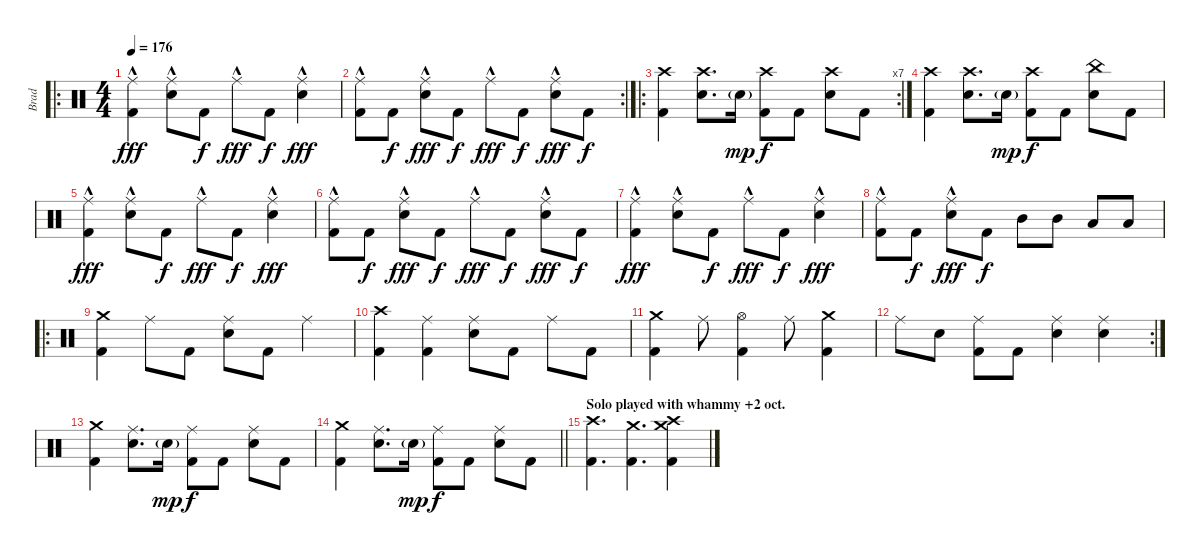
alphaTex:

\track ("Brad" "Brad") {instrument percussion}
\staff {score}
\articulation defaults
\ro
\ts (4 4)
\tempo 176
\clef neutral
\ks c
("Ride (middle)"{hac} "Kick (hit) 2").4{dy fff} ("Ride (middle)"{hac} "Electric Snare (hit)").8 "Kick (hit) 2".8{dy f} "Ride (middle)"{hac}.8{dy fff} "Kick (hit) 2".8{dy f} ("Ride (middle)"{hac} "Electric Snare (hit)").4{dy fff} |
\rc 2
("Ride (middle)"{hac} "Kick (hit) 2").8 "Kick (hit) 2".8{dy f} ("Ride (middle)"{hac} "Electric Snare (hit)").8{dy fff} "Kick (hit) 2".8{dy f} "Ride (middle)"{hac}.8{dy fff} "Kick (hit) 2".8{dy f} ("Ride (middle)"{hac} "Electric Snare (hit)").8{dy fff} "Kick (hit) 2".8{dy f} |
\ro
\rc 7
("Crash high (hit)" "Kick (hit) 2").4 ("Crash high (hit)" "Electric Snare (hit)").8{d} "Electric Snare (hit)"{g}.16{dy mp} ("Crash high (hit)" "Kick (hit) 2").8{dy f} "Kick (hit) 2".8 ("Crash high (hit)" "Electric Snare (hit)").8 "Kick (hit) 2".8 |
("Crash high (hit)" "Kick (hit) 2").4 ("Crash high (hit)" "Electric Snare (hit)").8{d} "Electric Snare (hit)"{g}.16{dy mp} ("Crash high (hit)" "Kick (hit) 2").8{dy f} "Kick (hit) 2".8 ("China (hit)" "Electric Snare (hit)").8 "Kick (hit) 2".8 |
("Ride (middle)"{hac} "Kick (hit) 2").4{dy fff} ("Ride (middle)"{hac} "Electric Snare (hit)").8 "Kick (hit) 2".8{dy f} "Ride (middle)"{hac}.8{dy fff} "Kick (hit) 2".8{dy f} ("Ride (middle)"{hac} "Electric Snare (hit)").4{dy fff} |
("Ride (middle)"{hac} "Kick (hit) 2").8 "Kick (hit) 2".8{dy f} ("Ride (middle)"{hac} "Electric Snare (hit)").8{dy fff} "Kick (hit) 2".8{dy f} "Ride (middle)"{hac}.8{dy fff} "Kick (hit) 2".8{dy f} ("Ride (middle)"{hac} "Electric Snare (hit)").8{dy fff} "Kick (hit) 2".8{dy f} |
("Ride (middle)"{hac} "Kick (hit) 2").4{dy fff} ("Ride (middle)"{hac} "Electric Snare (hit)").8 "Kick (hit) 2".8{dy f} "Ride (middle)"{hac}.8{dy fff} "Kick (hit) 2".8{dy f} ("Ride (middle)"{hac} "Electric Snare (hit)").4{dy fff} |
("Ride (middle)"{hac} "Kick (hit) 2").8 "Kick (hit) 2".8{dy f} ("Ride (middle)"{hac} "Electric Snare (hit)").8{dy fff} "Kick (hit) 2".8{dy f} "Mid Tom (hit)".8 "Mid Tom (hit)".8 "Low Tom (hit)".8 "Low Tom (hit)".8 |
\ro
("Crash medium (hit)" "Kick (hit) 2").4 "Ride (middle)".8 "Kick (hit) 2".8 ("Ride (middle)" "Electric Snare (hit)").8 "Kick (hit) 2".8 "Ride (middle)".4 |
("Crash high (hit)" "Kick (hit) 2").4 ("Ride (middle)" "Kick (hit) 2").4 ("Ride (middle)" "Electric Snare (hit)").8 "Kick (hit) 2".8 "Ride (middle)".8 "Kick (hit) 2".8 |
("Crash medium (hit)" "Kick (hit) 2").4 "Ride (middle)".8 ("Hi-Hat (open)" "Kick (hit) 2").4 "Ride (middle)".8 ("Crash medium (hit)" "Kick (hit) 2").4 |
\rc 2 "Ride (middle)".8 "Electric Snare (hit)".8
("Ride (middle)" "Kick (hit) 2").8 "Kick (hit) 2".8 ("Ride (middle)" "Electric Snare (hit)").4 ("Ride (middle)" "Electric Snare (hit)").4 |
("Crash medium (hit)" "Kick (hit) 2").4 ("Ride (middle)" "Electric Snare (hit)").8{d} "Electric Snare (hit)"{g}.16{dy mp} ("Ride (middle)" "Kick (hit) 2").8{dy f} "Kick (hit) 2".8 ("Ride (middle)" "Electric Snare (hit)").8 "Kick (hit) 2".8 |
\barLineRight lightlight
("Crash medium (hit)" "Kick (hit) 2").4 ("Ride (middle)" "Electric Snare (hit)").8{d} "Electric Snare (hit)"{g}.16{dy mp} ("Ride (middle)" "Kick (hit) 2").8{dy f} "Kick (hit) 2".8 ("Ride (middle)" "Electric Snare (hit)").8 "Kick (hit) 2".8 |
\section ("" "Solo played with whammy +2 oct.")
("Crash high (hit)" "Kick (hit) 2").4{d} ("Crash medium (hit)" "Kick (hit) 2").4{d} ("Crash high (hit)" "Crash medium (hit)" "Kick (hit) 2").4
